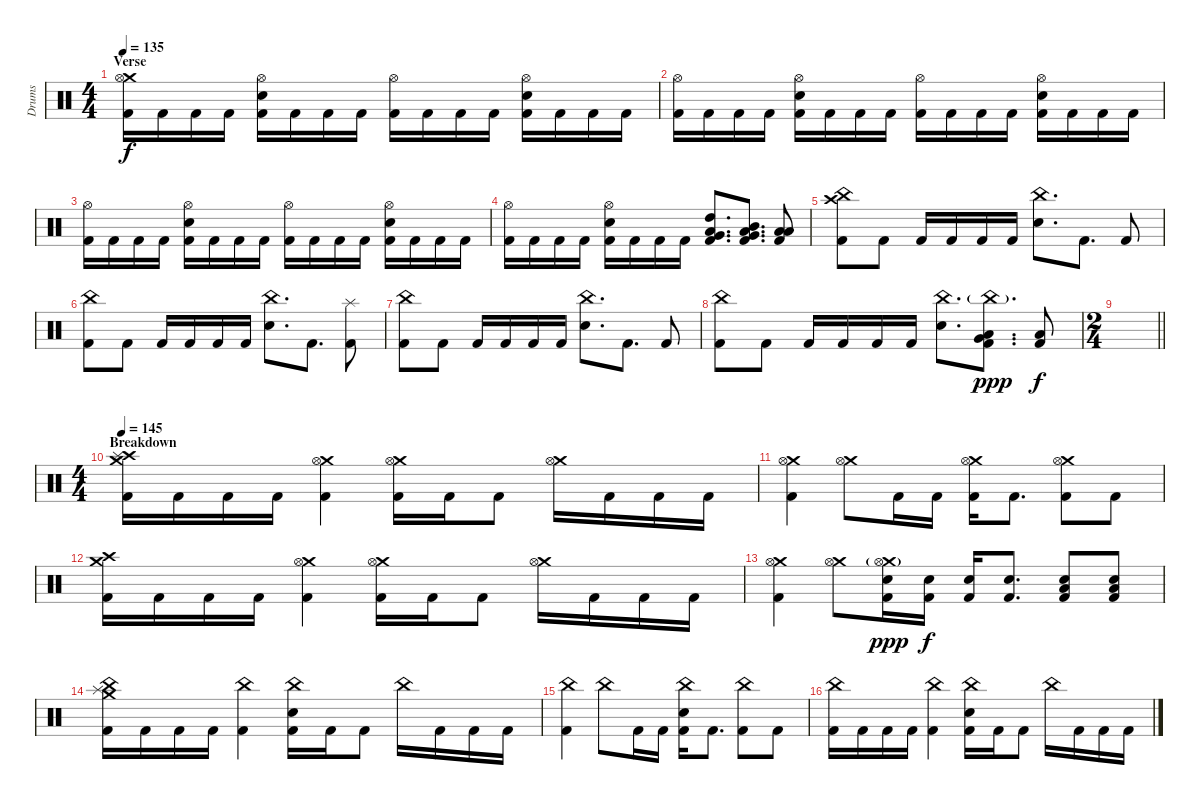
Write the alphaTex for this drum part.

\track ("Drums" "Drums") {instrument percussion}
\staff {score}
\articulation defaults
\ts (4 4)
\section ("" "Verse")
\tempo 135
\clef neutral
\ks c
("Crash medium (hit)" "Hi-Hat (open)" "Kick (hit) 2").16{dy f} "Kick (hit) 2".16 "Kick (hit) 2".16 "Kick (hit) 2".16 ("Hi-Hat (open)" "Electric Snare (hit)" "Kick (hit) 2").16 "Kick (hit) 2".16 "Kick (hit) 2".16 "Kick (hit) 2".16 ("Hi-Hat (open)" "Kick (hit) 2").16 "Kick (hit) 2".16 "Kick (hit) 2".16 "Kick (hit) 2".16 ("Hi-Hat (open)" "Electric Snare (hit)" "Kick (hit) 2").16 "Kick (hit) 2".16 "Kick (hit) 2".16 "Kick (hit) 2".16 |
("Hi-Hat (open)" "Kick (hit) 2").16 "Kick (hit) 2".16 "Kick (hit) 2".16 "Kick (hit) 2".16 ("Hi-Hat (open)" "Electric Snare (hit)" "Kick (hit) 2").16 "Kick (hit) 2".16 "Kick (hit) 2".16 "Kick (hit) 2".16 ("Hi-Hat (open)" "Kick (hit) 2").16 "Kick (hit) 2".16 "Kick (hit) 2".16 "Kick (hit) 2".16 ("Hi-Hat (open)" "Electric Snare (hit)" "Kick (hit) 2").16 "Kick (hit) 2".16 "Kick (hit) 2".16 "Kick (hit) 2".16 |
("Hi-Hat (open)" "Kick (hit) 2").16 "Kick (hit) 2".16 "Kick (hit) 2".16 "Kick (hit) 2".16 ("Hi-Hat (open)" "Electric Snare (hit)" "Kick (hit) 2").16 "Kick (hit) 2".16 "Kick (hit) 2".16 "Kick (hit) 2".16 ("Hi-Hat (open)" "Kick (hit) 2").16 "Kick (hit) 2".16 "Kick (hit) 2".16 "Kick (hit) 2".16 ("Hi-Hat (open)" "Electric Snare (hit)" "Kick (hit) 2").16 "Kick (hit) 2".16 "Kick (hit) 2".16 "Kick (hit) 2".16 |
("Hi-Hat (open)" "Kick (hit) 2").16 "Kick (hit) 2".16 "Kick (hit) 2".16 "Kick (hit) 2".16 ("Hi-Hat (open)" "Electric Snare (hit)" "Kick (hit) 2").16 "Kick (hit) 2".16 "Kick (hit) 2".16 "Kick (hit) 2".16 ("High Tom (hit)" "Low Tom (hit)" "Very Low Tom (hit)" "Kick (hit) 2").8{d} ("Mid Tom (hit)" "Low Floor Tom (hit)" "Very Low Tom (hit)" "Kick (hit) 2").8{d} ("Low Tom (hit)" "Low Floor Tom (hit)" "Kick (hit) 2").8 |
("China (hit)" "Crash high (hit)" "Kick (hit) 2").8 "Kick (hit) 2".8 "Kick (hit) 2".16 "Kick (hit) 2".16 "Kick (hit) 2".16 "Kick (hit) 2".16 ("China (hit)" "Electric Snare (hit)").8{d} "Kick (hit) 2".8{d} "Kick (hit) 2".8 |
("China (hit)" "Kick (hit) 2").8 "Kick (hit) 2".8 "Kick (hit) 2".16 "Kick (hit) 2".16 "Kick (hit) 2".16 "Kick (hit) 2".16 ("China (hit)" "Electric Snare (hit)").8{d} "Kick (hit) 2".8{d} ("Splash (hit)" "Kick (hit) 2").8 |
("China (hit)" "Kick (hit) 2").8 "Kick (hit) 2".8 "Kick (hit) 2".16 "Kick (hit) 2".16 "Kick (hit) 2".16 "Kick (hit) 2".16 ("China (hit)" "Electric Snare (hit)").8{d} "Kick (hit) 2".8{d} "Kick (hit) 2".8 |
("China (hit)" "Kick (hit) 2").8 "Kick (hit) 2".8 "Kick (hit) 2".16 "Kick (hit) 2".16 "Kick (hit) 2".16 "Kick (hit) 2".16 ("China (hit)" "Electric Snare (hit)").8{d} ("China (hit)"{g} "Very Low Tom (hit)" "Low Floor Tom (hit)" "Kick (hit) 2").8{d dy ppp} ("Low Floor Tom (hit)" "Kick (hit) 2").8{dy f} |
\ts (2 4)
\barLineRight lightlight
|
\ts (4 4)
\section ("" "Breakdown")
\tempo 145
("Crash high (hit)" "Crash medium (hit)" "Splash (hit)" "Kick (hit) 2").16 "Kick (hit) 2".16 "Kick (hit) 2".16 "Kick (hit) 2".16 ("Crash medium (hit)" "Hi-Hat (open)" "Kick (hit) 2").4 ("Crash medium (hit)" "Hi-Hat (open)" "Kick (hit) 2").16 "Kick (hit) 2".16 "Kick (hit) 2".8 ("Crash medium (hit)" "Hi-Hat (open)").16 "Kick (hit) 2".16 "Kick (hit) 2".16 "Kick (hit) 2".16 |
("Crash medium (hit)" "Hi-Hat (open)" "Kick (hit) 2").4 ("Crash medium (hit)" "Hi-Hat (open)").8 "Kick (hit) 2".16 "Kick (hit) 2".16 ("Crash medium (hit)" "Hi-Hat (open)" "Kick (hit) 2").16 "Kick (hit) 2".8{d} ("Crash medium (hit)" "Hi-Hat (open)" "Kick (hit) 2").8 "Kick (hit) 2".8 |
("Crash medium (hit)" "Crash high (hit)" "Kick (hit) 2").16 "Kick (hit) 2".16 "Kick (hit) 2".16 "Kick (hit) 2".16 ("Crash medium (hit)" "Hi-Hat (open)" "Kick (hit) 2").4 ("Crash medium (hit)" "Hi-Hat (open)" "Kick (hit) 2").16 "Kick (hit) 2".16 "Kick (hit) 2".8 ("Crash medium (hit)" "Hi-Hat (open)").16 "Kick (hit) 2".16 "Kick (hit) 2".16 "Kick (hit) 2".16 |
("Crash medium (hit)" "Hi-Hat (open)" "Kick (hit) 2").4 ("Crash medium (hit)" "Hi-Hat (open)").8 ("Crash medium (hit)"{g} "Hi-Hat (open)"{g} "Electric Snare (hit)" "Kick (hit) 2").16{dy ppp} ("Electric Snare (hit)" "Kick (hit) 2").16{dy f} ("Electric Snare (hit)" "Kick (hit) 2").16 ("Electric Snare (hit)" "Kick (hit) 2").8{d} ("Electric Snare (hit)" "Low Floor Tom (hit)" "Kick (hit) 2").8 ("Electric Snare (hit)" "Low Floor Tom (hit)" "Kick (hit) 2").8 |
("China (hit)" "Crash medium (hit)" "Splash (hit)" "Kick (hit) 2").16 "Kick (hit) 2".16 "Kick (hit) 2".16 "Kick (hit) 2".16 ("China (hit)" "Kick (hit) 2").4 ("China (hit)" "Electric Snare (hit)" "Kick (hit) 2").16 "Kick (hit) 2".16 "Kick (hit) 2".8 "China (hit)".16 "Kick (hit) 2".16 "Kick (hit) 2".16 "Kick (hit) 2".16 |
("China (hit)" "Kick (hit) 2").4 "China (hit)".8 "Kick (hit) 2".16 "Kick (hit) 2".16 ("China (hit)" "Electric Snare (hit)" "Kick (hit) 2").16 "Kick (hit) 2".8{d} ("China (hit)" "Kick (hit) 2").8 "Kick (hit) 2".8 |
("China (hit)" "Kick (hit) 2").16 "Kick (hit) 2".16 "Kick (hit) 2".16 "Kick (hit) 2".16 ("China (hit)" "Kick (hit) 2").4 ("China (hit)" "Electric Snare (hit)" "Kick (hit) 2").16 "Kick (hit) 2".16 "Kick (hit) 2".8 "China (hit)".16 "Kick (hit) 2".16 "Kick (hit) 2".16 "Kick (hit) 2".16
